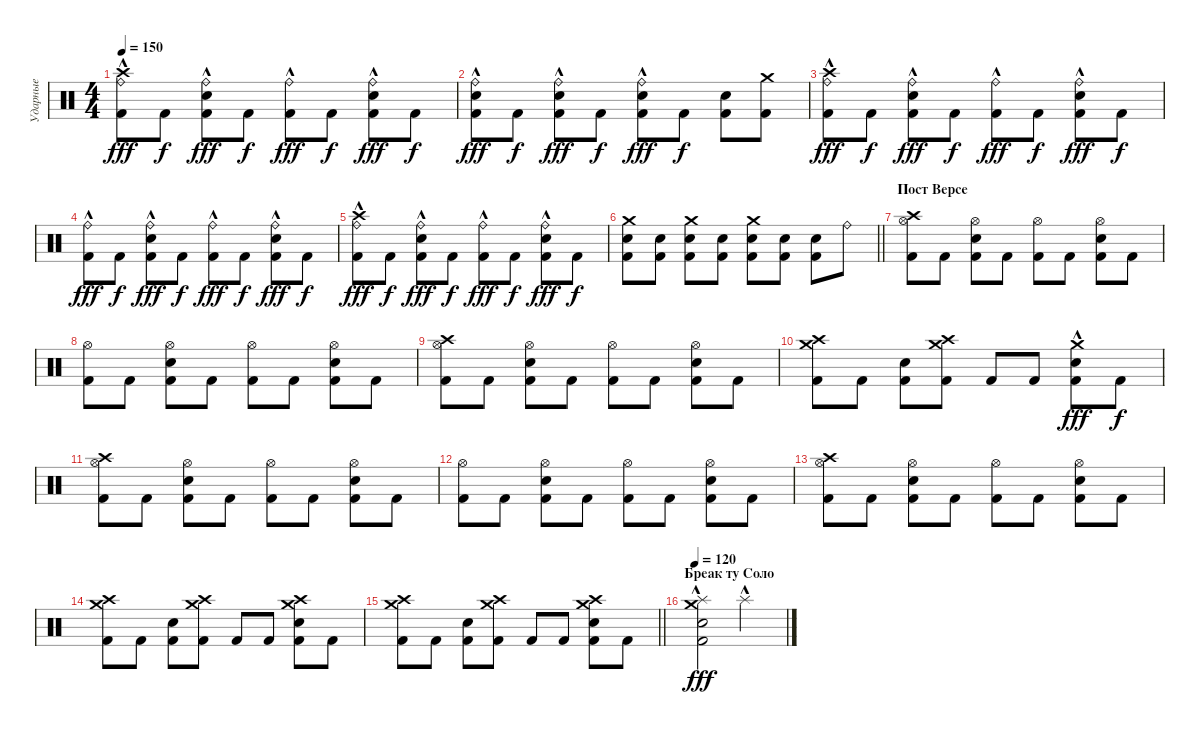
\track ("Ударные" "Ударные") {instrument percussion}
\staff {score}
\articulation defaults
\ts (4 4)
\tempo 150
\clef neutral
\ks c
("Crash high (hit)" "Ride (bell)"{hac} "Kick (hit) 2").8{dy fff} "Kick (hit) 2".8{dy f} ("Ride (bell)"{hac} "Snare (hit) 2" "Kick (hit) 2").8{dy fff} "Kick (hit) 2".8{dy f} ("Ride (bell)"{hac} "Kick (hit) 2").8{dy fff} "Kick (hit) 2".8{dy f} ("Ride (bell)"{hac} "Snare (hit) 2" "Kick (hit) 2").8{dy fff} "Kick (hit) 2".8{dy f} |
("Ride (bell)"{hac} "Snare (hit) 2" "Kick (hit) 2").8{dy fff} "Kick (hit) 2".8{dy f} ("Ride (bell)"{hac} "Snare (hit) 2" "Kick (hit) 2").8{dy fff} "Kick (hit) 2".8{dy f} ("Ride (bell)"{hac} "Snare (hit) 2" "Kick (hit) 2").8{dy fff} "Kick (hit) 2".8{dy f} ("Snare (hit) 2" "Kick (hit) 2").8 ("Crash medium (hit)" "Kick (hit) 2").8 |
("Crash high (hit)" "Ride (bell)"{hac} "Kick (hit) 2").8{dy fff} "Kick (hit) 2".8{dy f} ("Ride (bell)"{hac} "Snare (hit) 2" "Kick (hit) 2").8{dy fff} "Kick (hit) 2".8{dy f} ("Ride (bell)"{hac} "Kick (hit) 2").8{dy fff} "Kick (hit) 2".8{dy f} ("Ride (bell)"{hac} "Snare (hit) 2" "Kick (hit) 2").8{dy fff} "Kick (hit) 2".8{dy f} |
("Ride (bell)"{hac} "Kick (hit) 2").8{dy fff} "Kick (hit) 2".8{dy f} ("Ride (bell)"{hac} "Snare (hit) 2" "Kick (hit) 2").8{dy fff} "Kick (hit) 2".8{dy f} ("Ride (bell)"{hac} "Kick (hit) 2").8{dy fff} "Kick (hit) 2".8{dy f} ("Ride (bell)"{hac} "Snare (hit) 2" "Kick (hit) 2").8{dy fff} "Kick (hit) 2".8{dy f} |
("Crash high (hit)" "Ride (bell)"{hac} "Kick (hit) 2").8{dy fff} "Kick (hit) 2".8{dy f} ("Ride (bell)"{hac} "Snare (hit) 2" "Kick (hit) 2").8{dy fff} "Kick (hit) 2".8{dy f} ("Ride (bell)"{hac} "Kick (hit) 2").8{dy fff} "Kick (hit) 2".8{dy f} ("Ride (bell)"{hac} "Snare (hit) 2" "Kick (hit) 2").8{dy fff} "Kick (hit) 2".8{dy f} |
\barLineRight lightlight
("Crash medium (hit)" "Snare (hit) 2" "Kick (hit) 2").8 ("Snare (hit) 2" "Kick (hit) 2").8 ("Crash medium (hit)" "Snare (hit) 2" "Kick (hit) 2").8 ("Snare (hit) 2" "Kick (hit) 2").8 ("Crash medium (hit)" "Snare (hit) 2" "Kick (hit) 2").8 ("Snare (hit) 2" "Kick (hit) 2").8 ("Snare (hit) 2" "Kick (hit) 2").8 "Ride (bell)".8 |
\section ("" "Пост Версе")
("Crash high (hit)" "Hi-Hat (open)" "Kick (hit) 2").8 "Kick (hit) 2".8 ("Hi-Hat (open)" "Snare (hit) 2" "Kick (hit) 2").8 "Kick (hit) 2".8 ("Hi-Hat (open)" "Kick (hit) 2").8 "Kick (hit) 2".8 ("Hi-Hat (open)" "Snare (hit) 2" "Kick (hit) 2").8 "Kick (hit) 2".8 |
("Hi-Hat (open)" "Kick (hit) 2").8 "Kick (hit) 2".8 ("Hi-Hat (open)" "Snare (hit) 2" "Kick (hit) 2").8 "Kick (hit) 2".8 ("Hi-Hat (open)" "Kick (hit) 2").8 "Kick (hit) 2".8 ("Hi-Hat (open)" "Snare (hit) 2" "Kick (hit) 2").8 "Kick (hit) 2".8 |
("Crash high (hit)" "Hi-Hat (open)" "Kick (hit) 2").8 "Kick (hit) 2".8 ("Hi-Hat (open)" "Snare (hit) 2" "Kick (hit) 2").8 "Kick (hit) 2".8 ("Hi-Hat (open)" "Kick (hit) 2").8 "Kick (hit) 2".8 ("Hi-Hat (open)" "Snare (hit) 2" "Kick (hit) 2").8 "Kick (hit) 2".8 |
("Crash high (hit)" "Crash medium (hit)" "Kick (hit) 2").8 "Kick (hit) 2".8 ("Snare (hit) 2" "Kick (hit) 2").8 ("Crash high (hit)" "Crash medium (hit)" "Kick (hit) 2").8 "Kick (hit) 2".8 "Kick (hit) 2".8 ("Crash medium (hit)"{hac} "Snare (hit) 2" "Kick (hit) 2").8{dy fff} "Kick (hit) 2".8{dy f} |
("Crash high (hit)" "Hi-Hat (open)" "Kick (hit) 2").8 "Kick (hit) 2".8 ("Hi-Hat (open)" "Snare (hit) 2" "Kick (hit) 2").8 "Kick (hit) 2".8 ("Hi-Hat (open)" "Kick (hit) 2").8 "Kick (hit) 2".8 ("Hi-Hat (open)" "Snare (hit) 2" "Kick (hit) 2").8 "Kick (hit) 2".8 |
("Hi-Hat (open)" "Kick (hit) 2").8 "Kick (hit) 2".8 ("Hi-Hat (open)" "Snare (hit) 2" "Kick (hit) 2").8 "Kick (hit) 2".8 ("Hi-Hat (open)" "Kick (hit) 2").8 "Kick (hit) 2".8 ("Hi-Hat (open)" "Snare (hit) 2" "Kick (hit) 2").8 "Kick (hit) 2".8 |
("Crash high (hit)" "Hi-Hat (open)" "Kick (hit) 2").8 "Kick (hit) 2".8 ("Hi-Hat (open)" "Snare (hit) 2" "Kick (hit) 2").8 "Kick (hit) 2".8 ("Hi-Hat (open)" "Kick (hit) 2").8 "Kick (hit) 2".8 ("Hi-Hat (open)" "Snare (hit) 2" "Kick (hit) 2").8 "Kick (hit) 2".8 |
("Crash high (hit)" "Crash medium (hit)" "Kick (hit) 2").8 "Kick (hit) 2".8 ("Snare (hit) 2" "Kick (hit) 2").8 ("Crash high (hit)" "Crash medium (hit)" "Kick (hit) 2").8 "Kick (hit) 2".8 "Kick (hit) 2".8 ("Crash high (hit)" "Crash medium (hit)" "Snare (hit) 2" "Kick (hit) 2").8 "Kick (hit) 2".8 |
\barLineRight lightlight
("Crash high (hit)" "Crash medium (hit)" "Kick (hit) 2").8 "Kick (hit) 2".8 ("Snare (hit) 2" "Kick (hit) 2").8 ("Crash high (hit)" "Crash medium (hit)" "Kick (hit) 2").8 "Kick (hit) 2".8 "Kick (hit) 2".8 ("Crash high (hit)" "Crash medium (hit)" "Snare (hit) 2" "Kick (hit) 2").8 "Kick (hit) 2".8 |
\section ("" "Бреак ту Соло")
\tempo 120
("Crash medium (hit)" "Splash (hit)"{hac} "Snare (hit) 2" "Kick (hit) 2").2{dy fff} "Splash (hit)"{hac}.2
